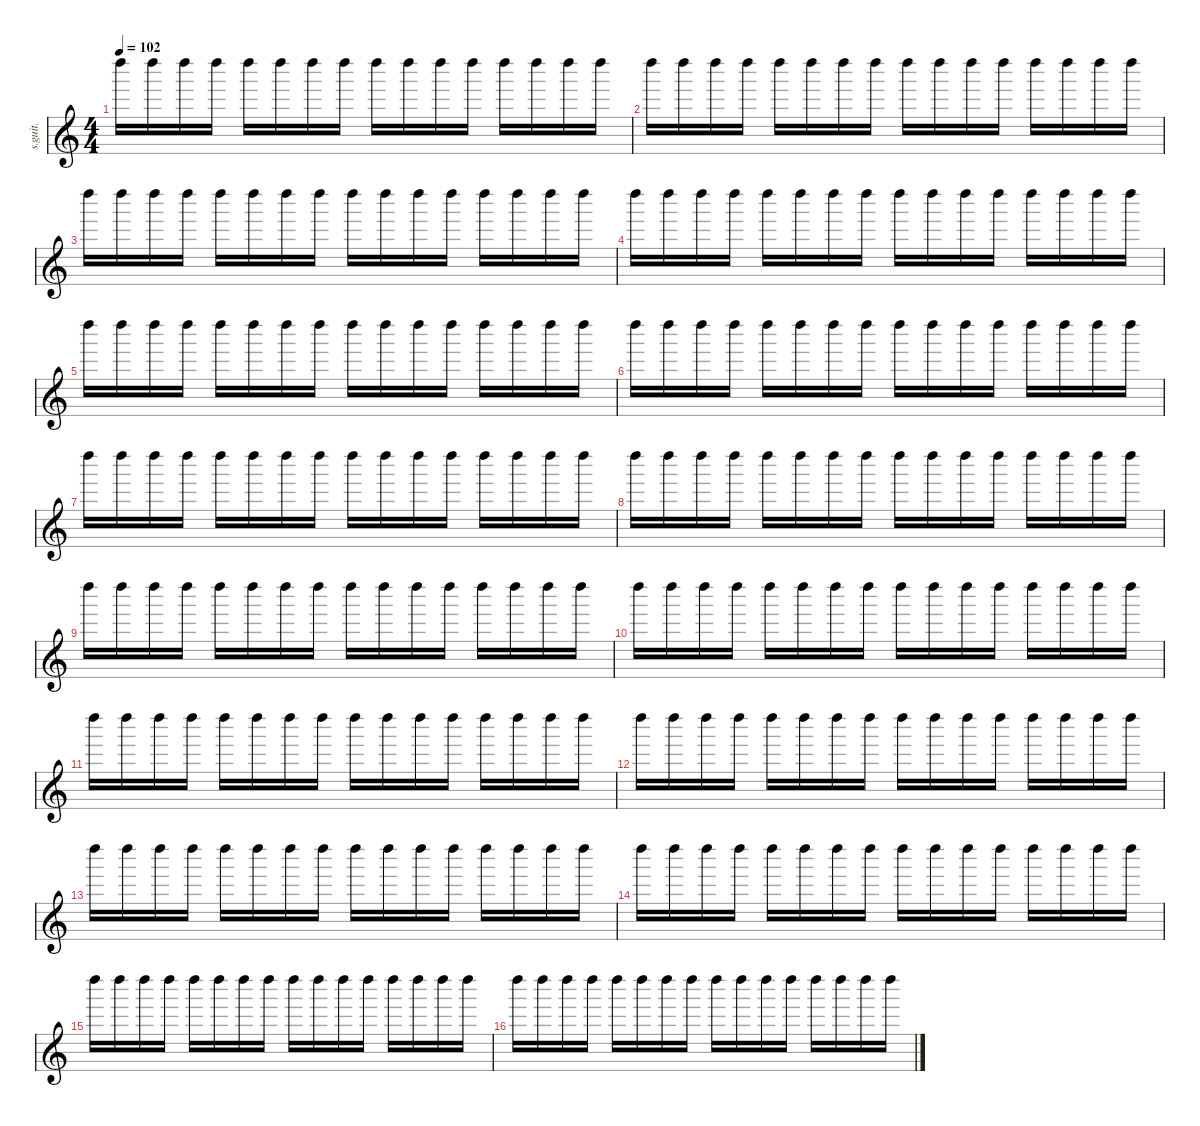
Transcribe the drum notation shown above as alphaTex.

\defaultSystemsLayout 4
\hideDynamics
\bracketExtendMode nobrackets
\track ("Drum Effects" "s.guit.") {instrument percussion}
\staff {score}
\articulation defaults
\ts (4 4)
\tempo 102
\clef g2
\ks c "Left Maraca (hit)".16{dy p} "Left Maraca (hit)".16{dy pp} "Left Maraca (hit)".16 "Left Maraca (hit)".16 "Left Maraca (hit)".16{dy p} "Left Maraca (hit)".16{dy pp} "Left Maraca (hit)".16 "Left Maraca (hit)".16 "Left Maraca (hit)".16{dy p} "Left Maraca (hit)".16{dy pp} "Left Maraca (hit)".16 "Left Maraca (hit)".16 "Left Maraca (hit)".16{dy p} "Left Maraca (hit)".16{dy pp} "Left Maraca (hit)".16 "Left Maraca (hit)".16
|
"Left Maraca (hit)".16{dy p} "Left Maraca (hit)".16{dy pp} "Left Maraca (hit)".16 "Left Maraca (hit)".16 "Left Maraca (hit)".16{dy p} "Left Maraca (hit)".16{dy pp} "Left Maraca (hit)".16 "Left Maraca (hit)".16 "Left Maraca (hit)".16{dy p} "Left Maraca (hit)".16{dy pp} "Left Maraca (hit)".16 "Left Maraca (hit)".16 "Left Maraca (hit)".16{dy p} "Left Maraca (hit)".16{dy pp} "Left Maraca (hit)".16 "Left Maraca (hit)".16 |
"Left Maraca (hit)".16{dy p} "Left Maraca (hit)".16{dy pp} "Left Maraca (hit)".16 "Left Maraca (hit)".16 "Left Maraca (hit)".16{dy p} "Left Maraca (hit)".16{dy pp} "Left Maraca (hit)".16 "Left Maraca (hit)".16 "Left Maraca (hit)".16{dy p} "Left Maraca (hit)".16{dy pp} "Left Maraca (hit)".16 "Left Maraca (hit)".16 "Left Maraca (hit)".16{dy p} "Left Maraca (hit)".16{dy pp} "Left Maraca (hit)".16 "Left Maraca (hit)".16 |
"Left Maraca (hit)".16{dy p} "Left Maraca (hit)".16{dy pp} "Left Maraca (hit)".16 "Left Maraca (hit)".16 "Left Maraca (hit)".16{dy p} "Left Maraca (hit)".16{dy pp} "Left Maraca (hit)".16 "Left Maraca (hit)".16 "Left Maraca (hit)".16{dy p} "Left Maraca (hit)".16{dy pp} "Left Maraca (hit)".16 "Left Maraca (hit)".16 "Left Maraca (hit)".16{dy p} "Left Maraca (hit)".16{dy pp} "Left Maraca (hit)".16 "Left Maraca (hit)".16 |
"Left Maraca (hit)".16{dy p} "Left Maraca (hit)".16{dy pp} "Left Maraca (hit)".16 "Left Maraca (hit)".16 "Left Maraca (hit)".16{dy p} "Left Maraca (hit)".16{dy pp} "Left Maraca (hit)".16 "Left Maraca (hit)".16 "Left Maraca (hit)".16{dy p} "Left Maraca (hit)".16{dy pp} "Left Maraca (hit)".16 "Left Maraca (hit)".16 "Left Maraca (hit)".16{dy p} "Left Maraca (hit)".16{dy pp} "Left Maraca (hit)".16 "Left Maraca (hit)".16 |
"Left Maraca (hit)".16{dy p} "Left Maraca (hit)".16{dy pp} "Left Maraca (hit)".16 "Left Maraca (hit)".16 "Left Maraca (hit)".16{dy p} "Left Maraca (hit)".16{dy pp} "Left Maraca (hit)".16 "Left Maraca (hit)".16 "Left Maraca (hit)".16{dy p} "Left Maraca (hit)".16{dy pp} "Left Maraca (hit)".16 "Left Maraca (hit)".16 "Left Maraca (hit)".16{dy p} "Left Maraca (hit)".16{dy pp} "Left Maraca (hit)".16 "Left Maraca (hit)".16 |
"Left Maraca (hit)".16{dy p} "Left Maraca (hit)".16{dy pp} "Left Maraca (hit)".16 "Left Maraca (hit)".16 "Left Maraca (hit)".16{dy p} "Left Maraca (hit)".16{dy pp} "Left Maraca (hit)".16 "Left Maraca (hit)".16 "Left Maraca (hit)".16{dy p} "Left Maraca (hit)".16{dy pp} "Left Maraca (hit)".16 "Left Maraca (hit)".16 "Left Maraca (hit)".16{dy p} "Left Maraca (hit)".16{dy pp} "Left Maraca (hit)".16 "Left Maraca (hit)".16 |
"Left Maraca (hit)".16{dy p} "Left Maraca (hit)".16{dy pp} "Left Maraca (hit)".16 "Left Maraca (hit)".16 "Left Maraca (hit)".16{dy p} "Left Maraca (hit)".16{dy pp} "Left Maraca (hit)".16 "Left Maraca (hit)".16 "Left Maraca (hit)".16{dy p} "Left Maraca (hit)".16{dy pp} "Left Maraca (hit)".16 "Left Maraca (hit)".16 "Left Maraca (hit)".16{dy p} "Left Maraca (hit)".16{dy pp} "Left Maraca (hit)".16 "Left Maraca (hit)".16 |
"Left Maraca (hit)".16{dy p} "Left Maraca (hit)".16{dy pp} "Left Maraca (hit)".16 "Left Maraca (hit)".16 "Left Maraca (hit)".16{dy p} "Left Maraca (hit)".16{dy pp} "Left Maraca (hit)".16 "Left Maraca (hit)".16 "Left Maraca (hit)".16{dy p} "Left Maraca (hit)".16{dy pp} "Left Maraca (hit)".16 "Left Maraca (hit)".16 "Left Maraca (hit)".16{dy p} "Left Maraca (hit)".16{dy pp} "Left Maraca (hit)".16 "Left Maraca (hit)".16 |
"Left Maraca (hit)".16{dy p} "Left Maraca (hit)".16{dy pp} "Left Maraca (hit)".16 "Left Maraca (hit)".16 "Left Maraca (hit)".16{dy p} "Left Maraca (hit)".16{dy pp} "Left Maraca (hit)".16 "Left Maraca (hit)".16 "Left Maraca (hit)".16{dy p} "Left Maraca (hit)".16{dy pp} "Left Maraca (hit)".16 "Left Maraca (hit)".16 "Left Maraca (hit)".16{dy p} "Left Maraca (hit)".16{dy pp} "Left Maraca (hit)".16 "Left Maraca (hit)".16 |
"Left Maraca (hit)".16{dy p} "Left Maraca (hit)".16{dy pp} "Left Maraca (hit)".16 "Left Maraca (hit)".16 "Left Maraca (hit)".16{dy p} "Left Maraca (hit)".16{dy pp} "Left Maraca (hit)".16 "Left Maraca (hit)".16 "Left Maraca (hit)".16{dy p} "Left Maraca (hit)".16{dy pp} "Left Maraca (hit)".16 "Left Maraca (hit)".16 "Left Maraca (hit)".16{dy p} "Left Maraca (hit)".16{dy pp} "Left Maraca (hit)".16 "Left Maraca (hit)".16 |
"Left Maraca (hit)".16{dy p} "Left Maraca (hit)".16{dy pp} "Left Maraca (hit)".16 "Left Maraca (hit)".16 "Left Maraca (hit)".16{dy p} "Left Maraca (hit)".16{dy pp} "Left Maraca (hit)".16 "Left Maraca (hit)".16 "Left Maraca (hit)".16{dy p} "Left Maraca (hit)".16{dy pp} "Left Maraca (hit)".16 "Left Maraca (hit)".16 "Left Maraca (hit)".16{dy p} "Left Maraca (hit)".16{dy pp} "Left Maraca (hit)".16 "Left Maraca (hit)".16 |
"Left Maraca (hit)".16{dy p} "Left Maraca (hit)".16{dy pp} "Left Maraca (hit)".16 "Left Maraca (hit)".16 "Left Maraca (hit)".16{dy p} "Left Maraca (hit)".16{dy pp} "Left Maraca (hit)".16 "Left Maraca (hit)".16 "Left Maraca (hit)".16{dy p} "Left Maraca (hit)".16{dy pp} "Left Maraca (hit)".16 "Left Maraca (hit)".16 "Left Maraca (hit)".16{dy p} "Left Maraca (hit)".16{dy pp} "Left Maraca (hit)".16 "Left Maraca (hit)".16 |
"Left Maraca (hit)".16{dy p} "Left Maraca (hit)".16{dy pp} "Left Maraca (hit)".16 "Left Maraca (hit)".16 "Left Maraca (hit)".16{dy p} "Left Maraca (hit)".16{dy pp} "Left Maraca (hit)".16 "Left Maraca (hit)".16 "Left Maraca (hit)".16{dy p} "Left Maraca (hit)".16{dy pp} "Left Maraca (hit)".16 "Left Maraca (hit)".16 "Left Maraca (hit)".16{dy p} "Left Maraca (hit)".16{dy pp} "Left Maraca (hit)".16 "Left Maraca (hit)".16 |
"Left Maraca (hit)".16{dy p} "Left Maraca (hit)".16{dy pp} "Left Maraca (hit)".16 "Left Maraca (hit)".16 "Left Maraca (hit)".16{dy p} "Left Maraca (hit)".16{dy pp} "Left Maraca (hit)".16 "Left Maraca (hit)".16 "Left Maraca (hit)".16{dy p} "Left Maraca (hit)".16{dy pp} "Left Maraca (hit)".16 "Left Maraca (hit)".16 "Left Maraca (hit)".16{dy p} "Left Maraca (hit)".16{dy pp} "Left Maraca (hit)".16 "Left Maraca (hit)".16 |
"Left Maraca (hit)".16{dy p} "Left Maraca (hit)".16{dy pp} "Left Maraca (hit)".16 "Left Maraca (hit)".16 "Left Maraca (hit)".16{dy p} "Left Maraca (hit)".16{dy pp} "Left Maraca (hit)".16 "Left Maraca (hit)".16 "Left Maraca (hit)".16{dy p} "Left Maraca (hit)".16{dy pp} "Left Maraca (hit)".16 "Left Maraca (hit)".16 "Left Maraca (hit)".16{dy p} "Left Maraca (hit)".16{dy pp} "Left Maraca (hit)".16 "Left Maraca (hit)".16
